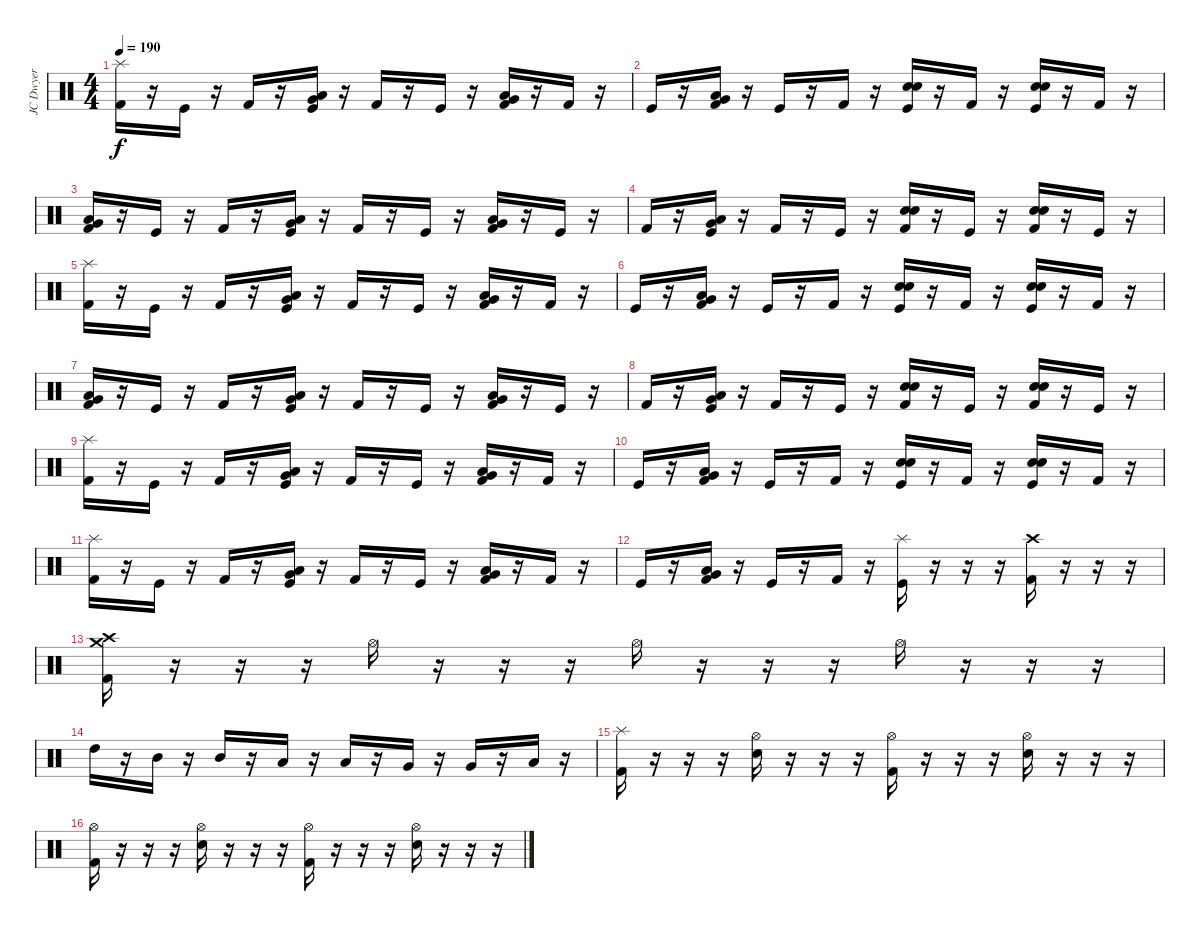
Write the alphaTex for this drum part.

\track ("JC Dwyer" "JC Dwyer") {instrument percussion}
\staff {score}
\articulation defaults
\ts (4 4)
\tempo 190
\clef neutral
\ks c
("Splash (hit)" "Kick (hit) 2").16{dy f} r.16 "Kick (hit)".16 r.16 "Kick (hit) 2".16 r.16 ("Very Low Tom (hit)" "Low Floor Tom (hit)" "Kick (hit)").16 r.16 "Kick (hit) 2".16 r.16 "Kick (hit)".16 r.16 ("Very Low Tom (hit)" "Low Floor Tom (hit)" "Kick (hit) 2").16 r.16 "Kick (hit) 2".16 r.16 |
"Kick (hit)".16 r.16 ("Very Low Tom (hit)" "Low Floor Tom (hit)" "Kick (hit) 2").16 r.16 "Kick (hit)".16 r.16 "Kick (hit) 2".16 r.16 ("Electric Snare (hit)" "Electric Snare (hit)" "Kick (hit)").16 r.16 "Kick (hit) 2".16 r.16 ("Electric Snare (hit)" "Electric Snare (hit)" "Kick (hit)").16 r.16 "Kick (hit) 2".16 r.16 |
("Very Low Tom (hit)" "Low Floor Tom (hit)" "Kick (hit) 2").16 r.16 "Kick (hit)".16 r.16 "Kick (hit) 2".16 r.16 ("Very Low Tom (hit)" "Low Floor Tom (hit)" "Kick (hit)").16 r.16 "Kick (hit) 2".16 r.16 "Kick (hit)".16 r.16 ("Very Low Tom (hit)" "Low Floor Tom (hit)" "Kick (hit) 2").16 r.16 "Kick (hit)".16 r.16 |
"Kick (hit) 2".16 r.16 ("Very Low Tom (hit)" "Low Floor Tom (hit)" "Kick (hit)").16 r.16 "Kick (hit) 2".16 r.16 "Kick (hit)".16 r.16 ("Electric Snare (hit)" "Electric Snare (hit)" "Kick (hit) 2").16 r.16 "Kick (hit)".16 r.16 ("Electric Snare (hit)" "Electric Snare (hit)" "Kick (hit) 2").16 r.16 "Kick (hit)".16 r.16 |
("Splash (hit)" "Kick (hit) 2").16 r.16 "Kick (hit)".16 r.16 "Kick (hit) 2".16 r.16 ("Very Low Tom (hit)" "Low Floor Tom (hit)" "Kick (hit)").16 r.16 "Kick (hit) 2".16 r.16 "Kick (hit)".16 r.16 ("Very Low Tom (hit)" "Low Floor Tom (hit)" "Kick (hit) 2").16 r.16 "Kick (hit) 2".16 r.16 |
"Kick (hit)".16 r.16 ("Very Low Tom (hit)" "Low Floor Tom (hit)" "Kick (hit) 2").16 r.16 "Kick (hit)".16 r.16 "Kick (hit) 2".16 r.16 ("Electric Snare (hit)" "Electric Snare (hit)" "Kick (hit)").16 r.16 "Kick (hit) 2".16 r.16 ("Electric Snare (hit)" "Electric Snare (hit)" "Kick (hit)").16 r.16 "Kick (hit) 2".16 r.16 |
("Very Low Tom (hit)" "Low Floor Tom (hit)" "Kick (hit) 2").16 r.16 "Kick (hit)".16 r.16 "Kick (hit) 2".16 r.16 ("Very Low Tom (hit)" "Low Floor Tom (hit)" "Kick (hit)").16 r.16 "Kick (hit) 2".16 r.16 "Kick (hit)".16 r.16 ("Very Low Tom (hit)" "Low Floor Tom (hit)" "Kick (hit) 2").16 r.16 "Kick (hit)".16 r.16 |
"Kick (hit) 2".16 r.16 ("Very Low Tom (hit)" "Low Floor Tom (hit)" "Kick (hit)").16 r.16 "Kick (hit) 2".16 r.16 "Kick (hit)".16 r.16 ("Electric Snare (hit)" "Electric Snare (hit)" "Kick (hit) 2").16 r.16 "Kick (hit)".16 r.16 ("Electric Snare (hit)" "Electric Snare (hit)" "Kick (hit) 2").16 r.16 "Kick (hit)".16 r.16 |
("Splash (hit)" "Kick (hit) 2").16 r.16 "Kick (hit)".16 r.16 "Kick (hit) 2".16 r.16 ("Very Low Tom (hit)" "Low Floor Tom (hit)" "Kick (hit)").16 r.16 "Kick (hit) 2".16 r.16 "Kick (hit)".16 r.16 ("Very Low Tom (hit)" "Low Floor Tom (hit)" "Kick (hit) 2").16 r.16 "Kick (hit) 2".16 r.16 |
"Kick (hit)".16 r.16 ("Very Low Tom (hit)" "Low Floor Tom (hit)" "Kick (hit) 2").16 r.16 "Kick (hit)".16 r.16 "Kick (hit) 2".16 r.16 ("Electric Snare (hit)" "Electric Snare (hit)" "Kick (hit)").16 r.16 "Kick (hit) 2".16 r.16 ("Electric Snare (hit)" "Electric Snare (hit)" "Kick (hit)").16 r.16 "Kick (hit) 2".16 r.16 |
("Splash (hit)" "Kick (hit) 2").16 r.16 "Kick (hit)".16 r.16 "Kick (hit) 2".16 r.16 ("Very Low Tom (hit)" "Low Floor Tom (hit)" "Kick (hit)").16 r.16 "Kick (hit) 2".16 r.16 "Kick (hit)".16 r.16 ("Very Low Tom (hit)" "Low Floor Tom (hit)" "Kick (hit) 2").16 r.16 "Kick (hit) 2".16 r.16 |
"Kick (hit)".16 r.16 ("Very Low Tom (hit)" "Low Floor Tom (hit)" "Kick (hit) 2").16 r.16 "Kick (hit)".16 r.16 "Kick (hit) 2".16 r.16 ("Splash (hit)" "Kick (hit)").16 r.16 r.16 r.16 ("Crash high (hit)" "Kick (hit) 2").16 r.16 r.16 r.16 |
("Crash medium (hit)" "Crash high (hit)" "Kick (hit) 2").16 r.16 r.16 r.16 "Hi-Hat (open)".16 r.16 r.16 r.16 "Hi-Hat (open)".16 r.16 r.16 r.16 "Hi-Hat (open)".16 r.16 r.16 r.16 |
"High Tom (hit)".16 r.16 "Mid Tom (hit)".16 r.16 "Mid Tom (hit)".16 r.16 "Low Tom (hit)".16 r.16 "Low Tom (hit)".16 r.16 "Very Low Tom (hit)".16 r.16 "Very Low Tom (hit)".16 r.16 "Low Floor Tom (hit)".16 r.16 |
("Splash (hit)" "Kick (hit) 2").16 r.16 r.16 r.16 ("Hi-Hat (open)" "Electric Snare (hit)").16 r.16 r.16 r.16 ("Hi-Hat (open)" "Kick (hit) 2").16 r.16 r.16 r.16 ("Hi-Hat (open)" "Electric Snare (hit)").16 r.16 r.16 r.16 |
("Hi-Hat (open)" "Kick (hit) 2").16 r.16 r.16 r.16 ("Hi-Hat (open)" "Electric Snare (hit)").16 r.16 r.16 r.16 ("Hi-Hat (open)" "Kick (hit) 2").16 r.16 r.16 r.16 ("Hi-Hat (open)" "Electric Snare (hit)").16 r.16 r.16 r.16
